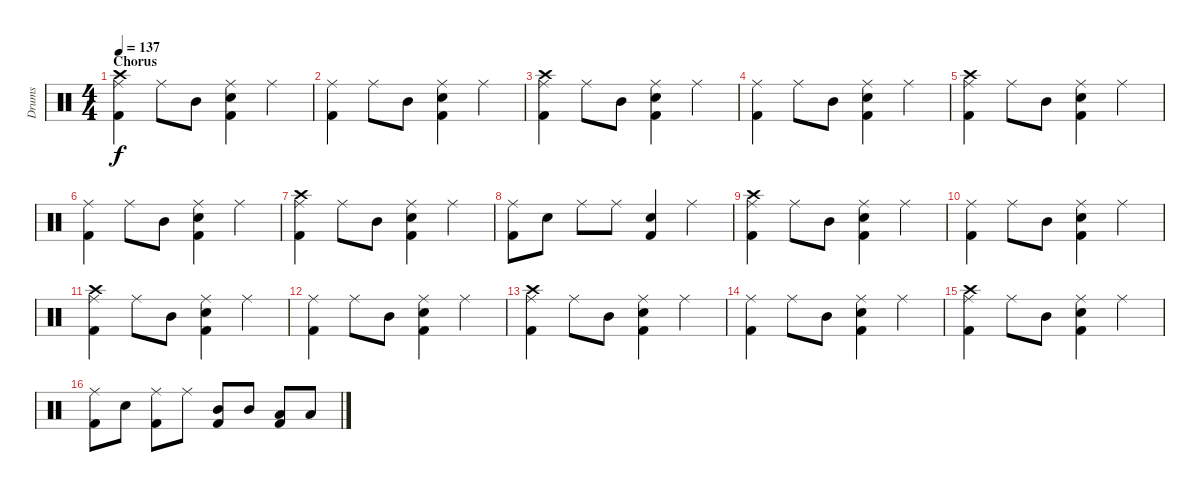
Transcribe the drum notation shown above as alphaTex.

\track ("Drums" "Drums") {instrument percussion}
\staff {score}
\articulation defaults
\ts (4 4)
\section ("" "Chorus")
\tempo 137
\clef neutral
\ks c
("Crash high (hit)" "Ride (middle)" "Kick (hit) 2").4{dy f} "Ride (middle)".8 "Mid Tom (hit)".8 ("Ride (middle)" "Electric Snare (hit)" "Kick (hit) 2").4 "Ride (middle)".4 |
("Ride (middle)" "Kick (hit) 2").4 "Ride (middle)".8 "Mid Tom (hit)".8 ("Ride (middle)" "Electric Snare (hit)" "Kick (hit) 2").4 "Ride (middle)".4 |
("Crash high (hit)" "Ride (middle)" "Kick (hit) 2").4 "Ride (middle)".8 "Mid Tom (hit)".8 ("Ride (middle)" "Electric Snare (hit)" "Kick (hit) 2").4 "Ride (middle)".4 |
("Ride (middle)" "Kick (hit) 2").4 "Ride (middle)".8 "Mid Tom (hit)".8 ("Ride (middle)" "Electric Snare (hit)" "Kick (hit) 2").4 "Ride (middle)".4 |
("Crash high (hit)" "Ride (middle)" "Kick (hit) 2").4 "Ride (middle)".8 "Mid Tom (hit)".8 ("Ride (middle)" "Electric Snare (hit)" "Kick (hit) 2").4 "Ride (middle)".4 |
("Ride (middle)" "Kick (hit) 2").4 "Ride (middle)".8 "Mid Tom (hit)".8 ("Ride (middle)" "Electric Snare (hit)" "Kick (hit) 2").4 "Ride (middle)".4 |
("Crash high (hit)" "Ride (middle)" "Kick (hit) 2").4 "Ride (middle)".8 "Mid Tom (hit)".8 ("Ride (middle)" "Electric Snare (hit)" "Kick (hit) 2").4 "Ride (middle)".4 |
("Ride (middle)" "Kick (hit) 2").8 "Electric Snare (hit)".8 "Ride (middle)".8 "Ride (middle)".8 ("Electric Snare (hit)" "Kick (hit) 2").4 "Ride (middle)".4 |
("Crash high (hit)" "Ride (middle)" "Kick (hit) 2").4 "Ride (middle)".8 "Mid Tom (hit)".8 ("Ride (middle)" "Electric Snare (hit)" "Kick (hit) 2").4 "Ride (middle)".4 |
("Ride (middle)" "Kick (hit) 2").4 "Ride (middle)".8 "Mid Tom (hit)".8 ("Ride (middle)" "Electric Snare (hit)" "Kick (hit) 2").4 "Ride (middle)".4 |
("Crash high (hit)" "Ride (middle)" "Kick (hit) 2").4 "Ride (middle)".8 "Mid Tom (hit)".8 ("Ride (middle)" "Electric Snare (hit)" "Kick (hit) 2").4 "Ride (middle)".4 |
("Ride (middle)" "Kick (hit) 2").4 "Ride (middle)".8 "Mid Tom (hit)".8 ("Ride (middle)" "Electric Snare (hit)" "Kick (hit) 2").4 "Ride (middle)".4 |
("Crash high (hit)" "Ride (middle)" "Kick (hit) 2").4 "Ride (middle)".8 "Mid Tom (hit)".8 ("Ride (middle)" "Electric Snare (hit)" "Kick (hit) 2").4 "Ride (middle)".4 |
("Ride (middle)" "Kick (hit) 2").4 "Ride (middle)".8 "Mid Tom (hit)".8 ("Ride (middle)" "Electric Snare (hit)" "Kick (hit) 2").4 "Ride (middle)".4 |
("Crash high (hit)" "Ride (middle)" "Kick (hit) 2").4 "Ride (middle)".8 "Mid Tom (hit)".8 ("Ride (middle)" "Electric Snare (hit)" "Kick (hit) 2").4 "Ride (middle)".4 |
("Ride (middle)" "Kick (hit) 2").8 "Electric Snare (hit)".8 ("Ride (middle)" "Kick (hit) 2").8 "Ride (middle)".8 ("Mid Tom (hit)" "Kick (hit) 2").8 "Mid Tom (hit)".8 ("Low Tom (hit)" "Kick (hit) 2").8 "Low Tom (hit)".8
